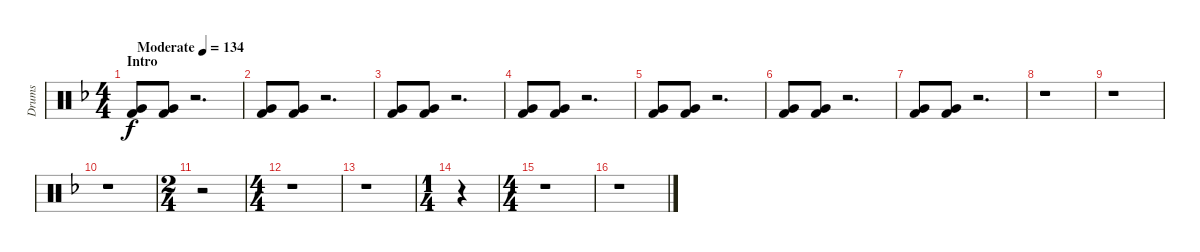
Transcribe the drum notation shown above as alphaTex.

\track ("Drums" "Drums") {instrument percussion}
\staff {score}
\articulation defaults
\ts (4 4)
\section ("" "Intro")
\tempo (134 "Moderate")
\clef neutral
\ks f
("Very Low Tom (hit)" "Kick (hit) 2").8{dy f} ("Very Low Tom (hit)" "Kick (hit) 2").8 r.2{d} |
("Very Low Tom (hit)" "Kick (hit) 2").8 ("Very Low Tom (hit)" "Kick (hit) 2").8 r.2{d} |
("Very Low Tom (hit)" "Kick (hit) 2").8 ("Very Low Tom (hit)" "Kick (hit) 2").8 r.2{d} |
("Very Low Tom (hit)" "Kick (hit) 2").8 ("Very Low Tom (hit)" "Kick (hit) 2").8 r.2{d} |
("Very Low Tom (hit)" "Kick (hit) 2").8 ("Very Low Tom (hit)" "Kick (hit) 2").8 r.2{d} |
("Very Low Tom (hit)" "Kick (hit) 2").8 ("Very Low Tom (hit)" "Kick (hit) 2").8 r.2{d} |
("Very Low Tom (hit)" "Kick (hit) 2").8 ("Very Low Tom (hit)" "Kick (hit) 2").8 r.2{d} |
r.1 |
r.1 |
r.1 |
\ts (2 4)
r.2 |
\ts (4 4)
r.1 |
r.1 |
\ts (1 4)
r.4 |
\ts (4 4)
r.1 |
r.1
